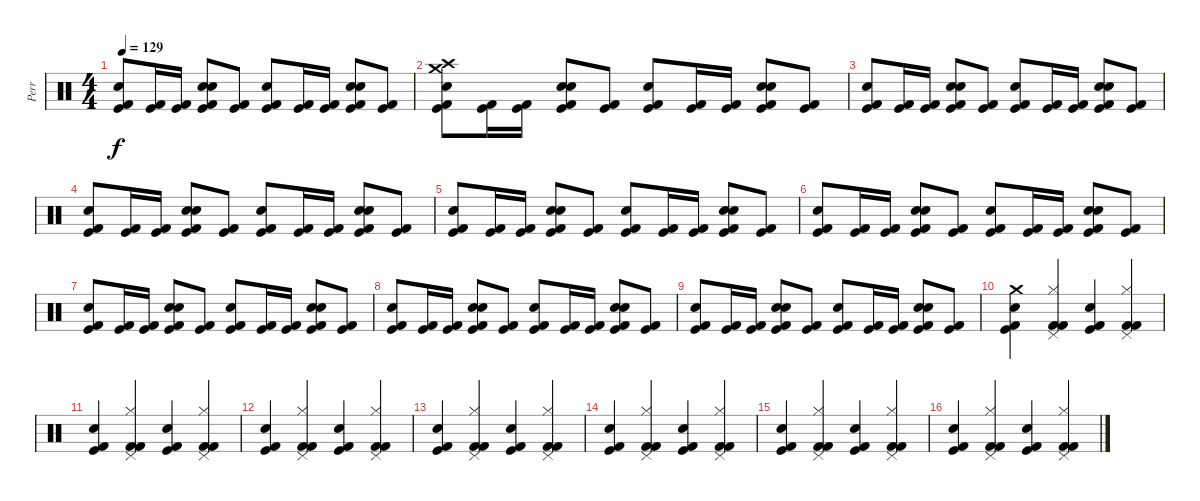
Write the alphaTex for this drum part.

\track ("Perr" "Perr") {instrument percussion}
\staff {score}
\articulation defaults
\ts (4 4)
\tempo 129
\clef neutral
\ks c
("Kick (hit) 2" "Kick (hit)" "Electric Snare (hit)").8{dy f} ("Kick (hit)" "Kick (hit) 2").16 ("Kick (hit)" "Kick (hit) 2").16 ("Kick (hit)" "Kick (hit) 2" "Hand Clap (hit)" "Electric Snare (hit)").8 ("Kick (hit) 2" "Kick (hit)").8 ("Kick (hit) 2" "Kick (hit)" "Electric Snare (hit)").8 ("Kick (hit)" "Kick (hit) 2").16 ("Kick (hit)" "Kick (hit) 2").16 ("Kick (hit)" "Kick (hit) 2" "Hand Clap (hit)" "Electric Snare (hit)").8 ("Kick (hit) 2" "Kick (hit)").8 |
("Kick (hit) 2" "Kick (hit)" "Electric Snare (hit)" "Crash medium (hit)" "Crash high (hit)").8 ("Kick (hit)" "Kick (hit) 2").16 ("Kick (hit)" "Kick (hit) 2").16 ("Kick (hit)" "Kick (hit) 2" "Hand Clap (hit)" "Electric Snare (hit)").8 ("Kick (hit) 2" "Kick (hit)").8 ("Kick (hit) 2" "Kick (hit)" "Electric Snare (hit)").8 ("Kick (hit)" "Kick (hit) 2").16 ("Kick (hit)" "Kick (hit) 2").16 ("Kick (hit)" "Kick (hit) 2" "Hand Clap (hit)" "Electric Snare (hit)").8 ("Kick (hit) 2" "Kick (hit)").8 |
("Kick (hit) 2" "Kick (hit)" "Electric Snare (hit)").8 ("Kick (hit)" "Kick (hit) 2").16 ("Kick (hit)" "Kick (hit) 2").16 ("Kick (hit)" "Kick (hit) 2" "Hand Clap (hit)" "Electric Snare (hit)").8 ("Kick (hit) 2" "Kick (hit)").8 ("Kick (hit) 2" "Kick (hit)" "Electric Snare (hit)").8 ("Kick (hit)" "Kick (hit) 2").16 ("Kick (hit)" "Kick (hit) 2").16 ("Kick (hit)" "Kick (hit) 2" "Hand Clap (hit)" "Electric Snare (hit)").8 ("Kick (hit) 2" "Kick (hit)").8 |
("Kick (hit) 2" "Kick (hit)" "Electric Snare (hit)").8 ("Kick (hit)" "Kick (hit) 2").16 ("Kick (hit)" "Kick (hit) 2").16 ("Kick (hit)" "Kick (hit) 2" "Hand Clap (hit)" "Electric Snare (hit)").8 ("Kick (hit) 2" "Kick (hit)").8 ("Kick (hit) 2" "Kick (hit)" "Electric Snare (hit)").8 ("Kick (hit)" "Kick (hit) 2").16 ("Kick (hit)" "Kick (hit) 2").16 ("Kick (hit)" "Kick (hit) 2" "Hand Clap (hit)" "Electric Snare (hit)").8 ("Kick (hit) 2" "Kick (hit)").8 |
("Kick (hit) 2" "Kick (hit)" "Electric Snare (hit)").8 ("Kick (hit)" "Kick (hit) 2").16 ("Kick (hit)" "Kick (hit) 2").16 ("Kick (hit)" "Kick (hit) 2" "Hand Clap (hit)" "Electric Snare (hit)").8 ("Kick (hit) 2" "Kick (hit)").8 ("Kick (hit) 2" "Kick (hit)" "Electric Snare (hit)").8 ("Kick (hit)" "Kick (hit) 2").16 ("Kick (hit)" "Kick (hit) 2").16 ("Kick (hit)" "Kick (hit) 2" "Hand Clap (hit)" "Electric Snare (hit)").8 ("Kick (hit) 2" "Kick (hit)").8 |
("Kick (hit) 2" "Kick (hit)" "Electric Snare (hit)").8 ("Kick (hit)" "Kick (hit) 2").16 ("Kick (hit)" "Kick (hit) 2").16 ("Kick (hit)" "Kick (hit) 2" "Hand Clap (hit)" "Electric Snare (hit)").8 ("Kick (hit) 2" "Kick (hit)").8 ("Kick (hit) 2" "Kick (hit)" "Electric Snare (hit)").8 ("Kick (hit)" "Kick (hit) 2").16 ("Kick (hit)" "Kick (hit) 2").16 ("Kick (hit)" "Kick (hit) 2" "Hand Clap (hit)" "Electric Snare (hit)").8 ("Kick (hit) 2" "Kick (hit)").8 |
("Kick (hit) 2" "Kick (hit)" "Electric Snare (hit)").8 ("Kick (hit)" "Kick (hit) 2").16 ("Kick (hit)" "Kick (hit) 2").16 ("Kick (hit)" "Kick (hit) 2" "Hand Clap (hit)" "Electric Snare (hit)").8 ("Kick (hit) 2" "Kick (hit)").8 ("Kick (hit) 2" "Kick (hit)" "Electric Snare (hit)").8 ("Kick (hit)" "Kick (hit) 2").16 ("Kick (hit)" "Kick (hit) 2").16 ("Kick (hit)" "Kick (hit) 2" "Hand Clap (hit)" "Electric Snare (hit)").8 ("Kick (hit) 2" "Kick (hit)").8 |
("Kick (hit) 2" "Kick (hit)" "Electric Snare (hit)").8 ("Kick (hit)" "Kick (hit) 2").16 ("Kick (hit)" "Kick (hit) 2").16 ("Kick (hit)" "Kick (hit) 2" "Hand Clap (hit)" "Electric Snare (hit)").8 ("Kick (hit) 2" "Kick (hit)").8 ("Kick (hit) 2" "Kick (hit)" "Electric Snare (hit)").8 ("Kick (hit)" "Kick (hit) 2").16 ("Kick (hit)" "Kick (hit) 2").16 ("Kick (hit)" "Kick (hit) 2" "Hand Clap (hit)" "Electric Snare (hit)").8 ("Kick (hit) 2" "Kick (hit)").8 |
("Kick (hit) 2" "Kick (hit)" "Electric Snare (hit)").8 ("Kick (hit)" "Kick (hit) 2").16 ("Kick (hit)" "Kick (hit) 2").16 ("Kick (hit)" "Kick (hit) 2" "Hand Clap (hit)" "Electric Snare (hit)").8 ("Kick (hit) 2" "Kick (hit)").8 ("Kick (hit) 2" "Kick (hit)" "Electric Snare (hit)").8 ("Kick (hit)" "Kick (hit) 2").16 ("Kick (hit)" "Kick (hit) 2").16 ("Kick (hit)" "Kick (hit) 2" "Hand Clap (hit)" "Electric Snare (hit)").8 ("Kick (hit) 2" "Kick (hit)").8 |
("Kick (hit) 2" "Kick (hit)" "Electric Snare (hit)" "Crash medium (hit)").4 ("Kick (hit) 2" "Kick (hit) 2" "Hi-Hat (closed)" "Pedal Hi-Hat (hit)").4 ("Kick (hit) 2" "Kick (hit)" "Electric Snare (hit)").4 ("Kick (hit) 2" "Kick (hit) 2" "Hi-Hat (closed)" "Pedal Hi-Hat (hit)").4 |
("Kick (hit) 2" "Kick (hit)" "Electric Snare (hit)").4 ("Kick (hit) 2" "Kick (hit) 2" "Hi-Hat (closed)" "Pedal Hi-Hat (hit)").4 ("Kick (hit) 2" "Kick (hit)" "Electric Snare (hit)").4 ("Kick (hit) 2" "Kick (hit) 2" "Hi-Hat (closed)" "Pedal Hi-Hat (hit)").4 |
("Kick (hit) 2" "Kick (hit)" "Electric Snare (hit)").4 ("Kick (hit) 2" "Kick (hit) 2" "Hi-Hat (closed)" "Pedal Hi-Hat (hit)").4 ("Kick (hit) 2" "Kick (hit)" "Electric Snare (hit)").4 ("Kick (hit) 2" "Kick (hit) 2" "Hi-Hat (closed)" "Pedal Hi-Hat (hit)").4 |
("Kick (hit) 2" "Kick (hit)" "Electric Snare (hit)").4 ("Kick (hit) 2" "Kick (hit) 2" "Hi-Hat (closed)" "Pedal Hi-Hat (hit)").4 ("Kick (hit) 2" "Kick (hit)" "Electric Snare (hit)").4 ("Kick (hit) 2" "Kick (hit) 2" "Hi-Hat (closed)" "Pedal Hi-Hat (hit)").4 |
("Kick (hit) 2" "Kick (hit)" "Electric Snare (hit)").4 ("Kick (hit) 2" "Kick (hit) 2" "Hi-Hat (closed)" "Pedal Hi-Hat (hit)").4 ("Kick (hit) 2" "Kick (hit)" "Electric Snare (hit)").4 ("Kick (hit) 2" "Kick (hit) 2" "Hi-Hat (closed)" "Pedal Hi-Hat (hit)").4 |
("Kick (hit) 2" "Kick (hit)" "Electric Snare (hit)").4 ("Kick (hit) 2" "Kick (hit) 2" "Hi-Hat (closed)" "Pedal Hi-Hat (hit)").4 ("Kick (hit) 2" "Kick (hit)" "Electric Snare (hit)").4 ("Kick (hit) 2" "Kick (hit) 2" "Hi-Hat (closed)" "Pedal Hi-Hat (hit)").4 |
("Kick (hit) 2" "Kick (hit)" "Electric Snare (hit)").4 ("Kick (hit) 2" "Kick (hit) 2" "Hi-Hat (closed)" "Pedal Hi-Hat (hit)").4 ("Kick (hit) 2" "Kick (hit)" "Electric Snare (hit)").4 ("Kick (hit) 2" "Kick (hit) 2" "Hi-Hat (closed)" "Pedal Hi-Hat (hit)").4
